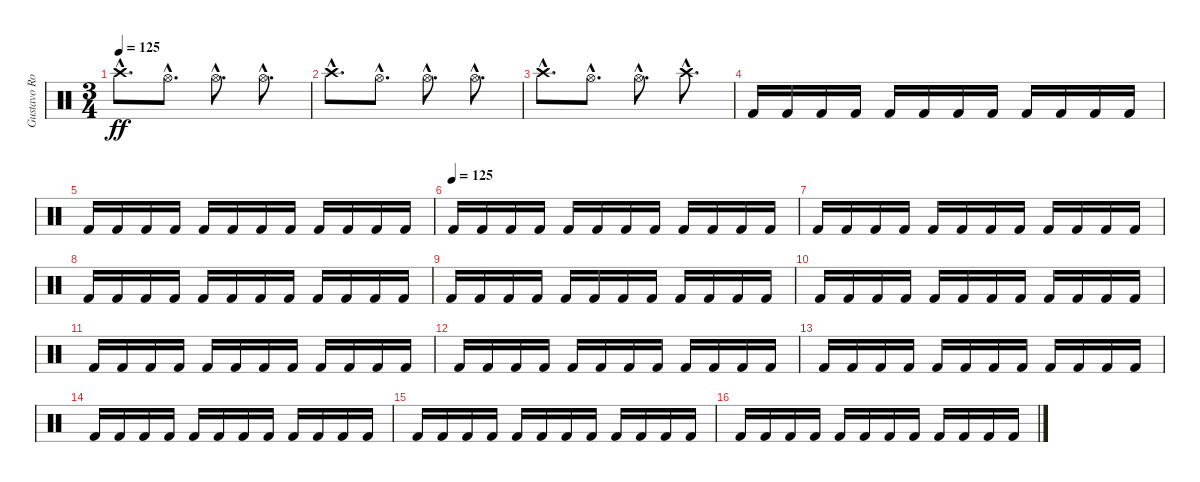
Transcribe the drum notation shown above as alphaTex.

\track ("Gustavo Rowek 1" "Gustavo Ro") {instrument percussion}
\staff {score}
\articulation defaults
\ts (3 4)
\tempo 125
\clef neutral
\ks c "Crash high (hit)"{hac}.8{d dy ff} "Hi-Hat (open)"{hac}.8{d} "Hi-Hat (open)"{hac}.8{d} "Hi-Hat (open)"{hac}.8{d}
|
"Crash high (hit)"{hac}.8{d} "Hi-Hat (open)"{hac}.8{d} "Hi-Hat (open)"{hac}.8{d} "Hi-Hat (open)"{hac}.8{d} |
"Crash high (hit)"{hac}.8{d} "Hi-Hat (open)"{hac}.8{d} "Hi-Hat (open)"{hac}.8{d} "Crash high (hit)"{hac}.8{d} |
"Kick (hit) 2".16 "Kick (hit) 2".16 "Kick (hit) 2".16 "Kick (hit) 2".16 "Kick (hit) 2".16 "Kick (hit) 2".16 "Kick (hit) 2".16 "Kick (hit) 2".16 "Kick (hit) 2".16 "Kick (hit) 2".16 "Kick (hit) 2".16 "Kick (hit) 2".16 |
"Kick (hit) 2".16 "Kick (hit) 2".16 "Kick (hit) 2".16 "Kick (hit) 2".16 "Kick (hit) 2".16 "Kick (hit) 2".16 "Kick (hit) 2".16 "Kick (hit) 2".16 "Kick (hit) 2".16 "Kick (hit) 2".16 "Kick (hit) 2".16 "Kick (hit) 2".16 |
\tempo (125)
"Kick (hit) 2".16 "Kick (hit) 2".16 "Kick (hit) 2".16 "Kick (hit) 2".16 "Kick (hit) 2".16 "Kick (hit) 2".16 "Kick (hit) 2".16 "Kick (hit) 2".16 "Kick (hit) 2".16 "Kick (hit) 2".16 "Kick (hit) 2".16 "Kick (hit) 2".16 |
"Kick (hit) 2".16 "Kick (hit) 2".16 "Kick (hit) 2".16 "Kick (hit) 2".16 "Kick (hit) 2".16 "Kick (hit) 2".16 "Kick (hit) 2".16 "Kick (hit) 2".16 "Kick (hit) 2".16 "Kick (hit) 2".16 "Kick (hit) 2".16 "Kick (hit) 2".16 |
"Kick (hit) 2".16 "Kick (hit) 2".16 "Kick (hit) 2".16 "Kick (hit) 2".16 "Kick (hit) 2".16 "Kick (hit) 2".16 "Kick (hit) 2".16 "Kick (hit) 2".16 "Kick (hit) 2".16 "Kick (hit) 2".16 "Kick (hit) 2".16 "Kick (hit) 2".16 |
"Kick (hit) 2".16 "Kick (hit) 2".16 "Kick (hit) 2".16 "Kick (hit) 2".16 "Kick (hit) 2".16 "Kick (hit) 2".16 "Kick (hit) 2".16 "Kick (hit) 2".16 "Kick (hit) 2".16 "Kick (hit) 2".16 "Kick (hit) 2".16 "Kick (hit) 2".16 |
"Kick (hit) 2".16 "Kick (hit) 2".16 "Kick (hit) 2".16 "Kick (hit) 2".16 "Kick (hit) 2".16 "Kick (hit) 2".16 "Kick (hit) 2".16 "Kick (hit) 2".16 "Kick (hit) 2".16 "Kick (hit) 2".16 "Kick (hit) 2".16 "Kick (hit) 2".16 |
"Kick (hit) 2".16 "Kick (hit) 2".16 "Kick (hit) 2".16 "Kick (hit) 2".16 "Kick (hit) 2".16 "Kick (hit) 2".16 "Kick (hit) 2".16 "Kick (hit) 2".16 "Kick (hit) 2".16 "Kick (hit) 2".16 "Kick (hit) 2".16 "Kick (hit) 2".16 |
"Kick (hit) 2".16 "Kick (hit) 2".16 "Kick (hit) 2".16 "Kick (hit) 2".16 "Kick (hit) 2".16 "Kick (hit) 2".16 "Kick (hit) 2".16 "Kick (hit) 2".16 "Kick (hit) 2".16 "Kick (hit) 2".16 "Kick (hit) 2".16 "Kick (hit) 2".16 |
"Kick (hit) 2".16 "Kick (hit) 2".16 "Kick (hit) 2".16 "Kick (hit) 2".16 "Kick (hit) 2".16 "Kick (hit) 2".16 "Kick (hit) 2".16 "Kick (hit) 2".16 "Kick (hit) 2".16 "Kick (hit) 2".16 "Kick (hit) 2".16 "Kick (hit) 2".16 |
"Kick (hit) 2".16 "Kick (hit) 2".16 "Kick (hit) 2".16 "Kick (hit) 2".16 "Kick (hit) 2".16 "Kick (hit) 2".16 "Kick (hit) 2".16 "Kick (hit) 2".16 "Kick (hit) 2".16 "Kick (hit) 2".16 "Kick (hit) 2".16 "Kick (hit) 2".16 |
"Kick (hit) 2".16 "Kick (hit) 2".16 "Kick (hit) 2".16 "Kick (hit) 2".16 "Kick (hit) 2".16 "Kick (hit) 2".16 "Kick (hit) 2".16 "Kick (hit) 2".16 "Kick (hit) 2".16 "Kick (hit) 2".16 "Kick (hit) 2".16 "Kick (hit) 2".16 |
"Kick (hit) 2".16 "Kick (hit) 2".16 "Kick (hit) 2".16 "Kick (hit) 2".16 "Kick (hit) 2".16 "Kick (hit) 2".16 "Kick (hit) 2".16 "Kick (hit) 2".16 "Kick (hit) 2".16 "Kick (hit) 2".16 "Kick (hit) 2".16 "Kick (hit) 2".16
